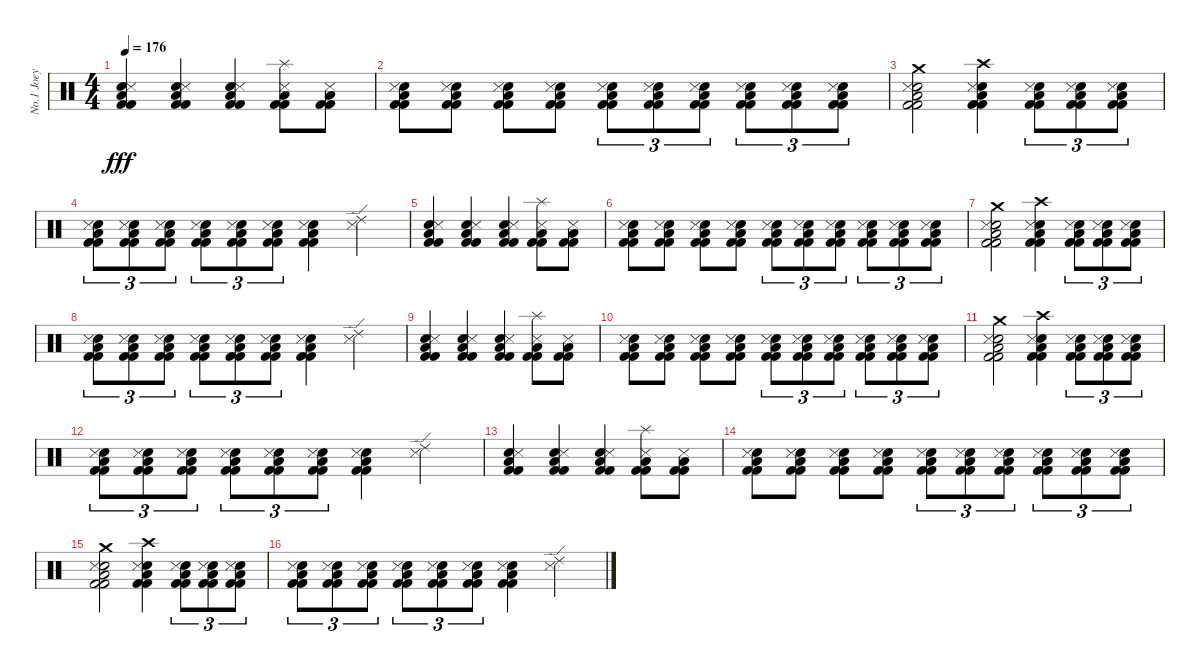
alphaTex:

\track ("No.1 Joey" "No.1 Joey") {instrument percussion}
\staff {score}
\articulation defaults
\ts (4 4)
\tempo 176
\clef neutral
\ks c
("Electric Snare (hit)" "Snare (side stick) 3" "Low Floor Tom (hit)" "Kick (hit) 2" "Kick (hit) 2").4{dy fff} ("Electric Snare (hit)" "Snare (side stick) 3" "Low Floor Tom (hit)" "Kick (hit) 2" "Kick (hit) 2").4 ("Electric Snare (hit)" "Snare (side stick) 3" "Low Floor Tom (hit)" "Kick (hit) 2" "Kick (hit) 2").4 ("Splash (hit)" "Snare (side stick) 3" "Low Floor Tom (hit)" "Kick (hit) 2" "Kick (hit) 2").8 ("Snare (side stick) 3" "Low Floor Tom (hit)" "Kick (hit) 2" "Kick (hit) 2").8 |
("Snare (hit) 2" "Snare (side stick) 3" "Low Floor Tom (hit)" "Kick (hit) 2" "Kick (hit) 2").8 ("Snare (hit) 2" "Snare (side stick) 3" "Low Floor Tom (hit)" "Kick (hit) 2" "Kick (hit) 2").8 ("Snare (hit) 2" "Snare (side stick) 3" "Low Floor Tom (hit)" "Kick (hit) 2" "Kick (hit) 2").8 ("Snare (hit) 2" "Snare (side stick) 3" "Low Floor Tom (hit)" "Kick (hit) 2" "Kick (hit) 2").8 ("Snare (hit) 2" "Snare (side stick) 3" "Low Floor Tom (hit)" "Kick (hit) 2" "Kick (hit) 2").8{tu (3 2)} ("Snare (hit) 2" "Snare (side stick) 3" "Low Floor Tom (hit)" "Kick (hit) 2" "Kick (hit) 2").8{tu (3 2)} ("Snare (hit) 2" "Snare (side stick) 3" "Low Floor Tom (hit)" "Kick (hit) 2" "Kick (hit) 2").8{tu (3 2)} ("Snare (hit) 2" "Snare (side stick) 3" "Low Floor Tom (hit)" "Kick (hit) 2" "Kick (hit) 2").8{tu (3 2)} ("Snare (hit) 2" "Snare (side stick) 3" "Low Floor Tom (hit)" "Kick (hit) 2" "Kick (hit) 2").8{tu (3 2)} ("Snare (hit) 2" "Snare (side stick) 3" "Low Floor Tom (hit)" "Kick (hit) 2" "Kick (hit) 2").8{tu (3 2)} |
("Electric Snare (hit)" "Crash medium (hit)" "Snare (side stick) 3" "Low Floor Tom (hit)" "Kick (hit) 2" "Kick (hit) 2").2 ("Electric Snare (hit)" "Crash high (hit)" "Snare (side stick) 3" "Low Floor Tom (hit)" "Kick (hit) 2" "Kick (hit) 2").4 ("Snare (hit) 2" "Snare (side stick) 3" "Low Floor Tom (hit)" "Kick (hit) 2" "Kick (hit) 2").8{tu (3 2)} ("Snare (hit) 2" "Snare (side stick) 3" "Low Floor Tom (hit)" "Kick (hit) 2" "Kick (hit) 2").8{tu (3 2)} ("Snare (hit) 2" "Snare (side stick) 3" "Low Floor Tom (hit)" "Kick (hit) 2" "Kick (hit) 2").8{tu (3 2)} |
("Snare (hit) 2" "Snare (side stick) 3" "Low Floor Tom (hit)" "Kick (hit) 2" "Kick (hit) 2").8{tu (3 2)} ("Snare (hit) 2" "Snare (side stick) 3" "Low Floor Tom (hit)" "Kick (hit) 2" "Kick (hit) 2").8{tu (3 2)} ("Snare (hit) 2" "Snare (side stick) 3" "Low Floor Tom (hit)" "Kick (hit) 2" "Kick (hit) 2").8{tu (3 2)} ("Snare (hit) 2" "Snare (side stick) 3" "Low Floor Tom (hit)" "Kick (hit) 2" "Kick (hit) 2").8{tu (3 2)} ("Snare (hit) 2" "Snare (side stick) 3" "Low Floor Tom (hit)" "Kick (hit) 2" "Kick (hit) 2").8{tu (3 2)} ("Snare (hit) 2" "Snare (side stick) 3" "Low Floor Tom (hit)" "Kick (hit) 2" "Kick (hit) 2").8{tu (3 2)} ("Snare (hit) 2" "Snare (side stick) 3" "Low Floor Tom (hit)" "Kick (hit) 2" "Kick (hit) 2").4 ("Ride (edge) 2" "Snare (side stick) 3").4 |
("Electric Snare (hit)" "Snare (side stick) 3" "Low Floor Tom (hit)" "Kick (hit) 2" "Kick (hit) 2").4 ("Electric Snare (hit)" "Snare (side stick) 3" "Low Floor Tom (hit)" "Kick (hit) 2" "Kick (hit) 2").4 ("Electric Snare (hit)" "Snare (side stick) 3" "Low Floor Tom (hit)" "Kick (hit) 2" "Kick (hit) 2").4 ("Splash (hit)" "Snare (side stick) 3" "Low Floor Tom (hit)" "Kick (hit) 2" "Kick (hit) 2").8 ("Snare (side stick) 3" "Low Floor Tom (hit)" "Kick (hit) 2" "Kick (hit) 2").8 |
("Snare (hit) 2" "Snare (side stick) 3" "Low Floor Tom (hit)" "Kick (hit) 2" "Kick (hit) 2").8 ("Snare (hit) 2" "Snare (side stick) 3" "Low Floor Tom (hit)" "Kick (hit) 2" "Kick (hit) 2").8 ("Snare (hit) 2" "Snare (side stick) 3" "Low Floor Tom (hit)" "Kick (hit) 2" "Kick (hit) 2").8 ("Snare (hit) 2" "Snare (side stick) 3" "Low Floor Tom (hit)" "Kick (hit) 2" "Kick (hit) 2").8 ("Snare (hit) 2" "Snare (side stick) 3" "Low Floor Tom (hit)" "Kick (hit) 2" "Kick (hit) 2").8{tu (3 2)} ("Snare (hit) 2" "Snare (side stick) 3" "Low Floor Tom (hit)" "Kick (hit) 2" "Kick (hit) 2").8{tu (3 2)} ("Snare (hit) 2" "Snare (side stick) 3" "Low Floor Tom (hit)" "Kick (hit) 2" "Kick (hit) 2").8{tu (3 2)} ("Snare (hit) 2" "Snare (side stick) 3" "Low Floor Tom (hit)" "Kick (hit) 2" "Kick (hit) 2").8{tu (3 2)} ("Snare (hit) 2" "Snare (side stick) 3" "Low Floor Tom (hit)" "Kick (hit) 2" "Kick (hit) 2").8{tu (3 2)} ("Snare (hit) 2" "Snare (side stick) 3" "Low Floor Tom (hit)" "Kick (hit) 2" "Kick (hit) 2").8{tu (3 2)} |
("Electric Snare (hit)" "Crash medium (hit)" "Snare (side stick) 3" "Low Floor Tom (hit)" "Kick (hit) 2" "Kick (hit) 2").2 ("Electric Snare (hit)" "Crash high (hit)" "Snare (side stick) 3" "Low Floor Tom (hit)" "Kick (hit) 2" "Kick (hit) 2").4 ("Snare (hit) 2" "Snare (side stick) 3" "Low Floor Tom (hit)" "Kick (hit) 2" "Kick (hit) 2").8{tu (3 2)} ("Snare (hit) 2" "Snare (side stick) 3" "Low Floor Tom (hit)" "Kick (hit) 2" "Kick (hit) 2").8{tu (3 2)} ("Snare (hit) 2" "Snare (side stick) 3" "Low Floor Tom (hit)" "Kick (hit) 2" "Kick (hit) 2").8{tu (3 2)} |
("Snare (hit) 2" "Snare (side stick) 3" "Low Floor Tom (hit)" "Kick (hit) 2" "Kick (hit) 2").8{tu (3 2)} ("Snare (hit) 2" "Snare (side stick) 3" "Low Floor Tom (hit)" "Kick (hit) 2" "Kick (hit) 2").8{tu (3 2)} ("Snare (hit) 2" "Snare (side stick) 3" "Low Floor Tom (hit)" "Kick (hit) 2" "Kick (hit) 2").8{tu (3 2)} ("Snare (hit) 2" "Snare (side stick) 3" "Low Floor Tom (hit)" "Kick (hit) 2" "Kick (hit) 2").8{tu (3 2)} ("Snare (hit) 2" "Snare (side stick) 3" "Low Floor Tom (hit)" "Kick (hit) 2" "Kick (hit) 2").8{tu (3 2)} ("Snare (hit) 2" "Snare (side stick) 3" "Low Floor Tom (hit)" "Kick (hit) 2" "Kick (hit) 2").8{tu (3 2)} ("Snare (hit) 2" "Snare (side stick) 3" "Low Floor Tom (hit)" "Kick (hit) 2" "Kick (hit) 2").4 ("Ride (edge) 2" "Snare (side stick) 3").4 |
("Electric Snare (hit)" "Snare (side stick) 3" "Low Floor Tom (hit)" "Kick (hit) 2" "Kick (hit) 2").4 ("Electric Snare (hit)" "Snare (side stick) 3" "Low Floor Tom (hit)" "Kick (hit) 2" "Kick (hit) 2").4 ("Electric Snare (hit)" "Snare (side stick) 3" "Low Floor Tom (hit)" "Kick (hit) 2" "Kick (hit) 2").4 ("Splash (hit)" "Snare (side stick) 3" "Low Floor Tom (hit)" "Kick (hit) 2" "Kick (hit) 2").8 ("Snare (side stick) 3" "Low Floor Tom (hit)" "Kick (hit) 2" "Kick (hit) 2").8 |
("Snare (hit) 2" "Snare (side stick) 3" "Low Floor Tom (hit)" "Kick (hit) 2" "Kick (hit) 2").8 ("Snare (hit) 2" "Snare (side stick) 3" "Low Floor Tom (hit)" "Kick (hit) 2" "Kick (hit) 2").8 ("Snare (hit) 2" "Snare (side stick) 3" "Low Floor Tom (hit)" "Kick (hit) 2" "Kick (hit) 2").8 ("Snare (hit) 2" "Snare (side stick) 3" "Low Floor Tom (hit)" "Kick (hit) 2" "Kick (hit) 2").8 ("Snare (hit) 2" "Snare (side stick) 3" "Low Floor Tom (hit)" "Kick (hit) 2" "Kick (hit) 2").8{tu (3 2)} ("Snare (hit) 2" "Snare (side stick) 3" "Low Floor Tom (hit)" "Kick (hit) 2" "Kick (hit) 2").8{tu (3 2)} ("Snare (hit) 2" "Snare (side stick) 3" "Low Floor Tom (hit)" "Kick (hit) 2" "Kick (hit) 2").8{tu (3 2)} ("Snare (hit) 2" "Snare (side stick) 3" "Low Floor Tom (hit)" "Kick (hit) 2" "Kick (hit) 2").8{tu (3 2)} ("Snare (hit) 2" "Snare (side stick) 3" "Low Floor Tom (hit)" "Kick (hit) 2" "Kick (hit) 2").8{tu (3 2)} ("Snare (hit) 2" "Snare (side stick) 3" "Low Floor Tom (hit)" "Kick (hit) 2" "Kick (hit) 2").8{tu (3 2)} |
("Electric Snare (hit)" "Crash medium (hit)" "Snare (side stick) 3" "Low Floor Tom (hit)" "Kick (hit) 2" "Kick (hit) 2").2 ("Electric Snare (hit)" "Crash high (hit)" "Snare (side stick) 3" "Low Floor Tom (hit)" "Kick (hit) 2" "Kick (hit) 2").4 ("Snare (hit) 2" "Snare (side stick) 3" "Low Floor Tom (hit)" "Kick (hit) 2" "Kick (hit) 2").8{tu (3 2)} ("Snare (hit) 2" "Snare (side stick) 3" "Low Floor Tom (hit)" "Kick (hit) 2" "Kick (hit) 2").8{tu (3 2)} ("Snare (hit) 2" "Snare (side stick) 3" "Low Floor Tom (hit)" "Kick (hit) 2" "Kick (hit) 2").8{tu (3 2)} |
("Snare (hit) 2" "Snare (side stick) 3" "Low Floor Tom (hit)" "Kick (hit) 2" "Kick (hit) 2").8{tu (3 2)} ("Snare (hit) 2" "Snare (side stick) 3" "Low Floor Tom (hit)" "Kick (hit) 2" "Kick (hit) 2").8{tu (3 2)} ("Snare (hit) 2" "Snare (side stick) 3" "Low Floor Tom (hit)" "Kick (hit) 2" "Kick (hit) 2").8{tu (3 2)} ("Snare (hit) 2" "Snare (side stick) 3" "Low Floor Tom (hit)" "Kick (hit) 2" "Kick (hit) 2").8{tu (3 2)} ("Snare (hit) 2" "Snare (side stick) 3" "Low Floor Tom (hit)" "Kick (hit) 2" "Kick (hit) 2").8{tu (3 2)} ("Snare (hit) 2" "Snare (side stick) 3" "Low Floor Tom (hit)" "Kick (hit) 2" "Kick (hit) 2").8{tu (3 2)} ("Snare (hit) 2" "Snare (side stick) 3" "Low Floor Tom (hit)" "Kick (hit) 2" "Kick (hit) 2").4 ("Ride (edge) 2" "Snare (side stick) 3").4 |
("Electric Snare (hit)" "Snare (side stick) 3" "Low Floor Tom (hit)" "Kick (hit) 2" "Kick (hit) 2").4 ("Electric Snare (hit)" "Snare (side stick) 3" "Low Floor Tom (hit)" "Kick (hit) 2" "Kick (hit) 2").4 ("Electric Snare (hit)" "Snare (side stick) 3" "Low Floor Tom (hit)" "Kick (hit) 2" "Kick (hit) 2").4 ("Splash (hit)" "Snare (side stick) 3" "Low Floor Tom (hit)" "Kick (hit) 2" "Kick (hit) 2").8 ("Snare (side stick) 3" "Low Floor Tom (hit)" "Kick (hit) 2" "Kick (hit) 2").8 |
("Snare (hit) 2" "Snare (side stick) 3" "Low Floor Tom (hit)" "Kick (hit) 2" "Kick (hit) 2").8 ("Snare (hit) 2" "Snare (side stick) 3" "Low Floor Tom (hit)" "Kick (hit) 2" "Kick (hit) 2").8 ("Snare (hit) 2" "Snare (side stick) 3" "Low Floor Tom (hit)" "Kick (hit) 2" "Kick (hit) 2").8 ("Snare (hit) 2" "Snare (side stick) 3" "Low Floor Tom (hit)" "Kick (hit) 2" "Kick (hit) 2").8 ("Snare (hit) 2" "Snare (side stick) 3" "Low Floor Tom (hit)" "Kick (hit) 2" "Kick (hit) 2").8{tu (3 2)} ("Snare (hit) 2" "Snare (side stick) 3" "Low Floor Tom (hit)" "Kick (hit) 2" "Kick (hit) 2").8{tu (3 2)} ("Snare (hit) 2" "Snare (side stick) 3" "Low Floor Tom (hit)" "Kick (hit) 2" "Kick (hit) 2").8{tu (3 2)} ("Snare (hit) 2" "Snare (side stick) 3" "Low Floor Tom (hit)" "Kick (hit) 2" "Kick (hit) 2").8{tu (3 2)} ("Snare (hit) 2" "Snare (side stick) 3" "Low Floor Tom (hit)" "Kick (hit) 2" "Kick (hit) 2").8{tu (3 2)} ("Snare (hit) 2" "Snare (side stick) 3" "Low Floor Tom (hit)" "Kick (hit) 2" "Kick (hit) 2").8{tu (3 2)} |
("Electric Snare (hit)" "Crash medium (hit)" "Snare (side stick) 3" "Low Floor Tom (hit)" "Kick (hit) 2" "Kick (hit) 2").2 ("Electric Snare (hit)" "Crash high (hit)" "Snare (side stick) 3" "Low Floor Tom (hit)" "Kick (hit) 2" "Kick (hit) 2").4 ("Snare (hit) 2" "Snare (side stick) 3" "Low Floor Tom (hit)" "Kick (hit) 2" "Kick (hit) 2").8{tu (3 2)} ("Snare (hit) 2" "Snare (side stick) 3" "Low Floor Tom (hit)" "Kick (hit) 2" "Kick (hit) 2").8{tu (3 2)} ("Snare (hit) 2" "Snare (side stick) 3" "Low Floor Tom (hit)" "Kick (hit) 2" "Kick (hit) 2").8{tu (3 2)} |
("Snare (hit) 2" "Snare (side stick) 3" "Low Floor Tom (hit)" "Kick (hit) 2" "Kick (hit) 2").8{tu (3 2)} ("Snare (hit) 2" "Snare (side stick) 3" "Low Floor Tom (hit)" "Kick (hit) 2" "Kick (hit) 2").8{tu (3 2)} ("Snare (hit) 2" "Snare (side stick) 3" "Low Floor Tom (hit)" "Kick (hit) 2" "Kick (hit) 2").8{tu (3 2)} ("Snare (hit) 2" "Snare (side stick) 3" "Low Floor Tom (hit)" "Kick (hit) 2" "Kick (hit) 2").8{tu (3 2)} ("Snare (hit) 2" "Snare (side stick) 3" "Low Floor Tom (hit)" "Kick (hit) 2" "Kick (hit) 2").8{tu (3 2)} ("Snare (hit) 2" "Snare (side stick) 3" "Low Floor Tom (hit)" "Kick (hit) 2" "Kick (hit) 2").8{tu (3 2)} ("Snare (hit) 2" "Snare (side stick) 3" "Low Floor Tom (hit)" "Kick (hit) 2" "Kick (hit) 2").4 ("Ride (edge) 2" "Snare (side stick) 3").4
